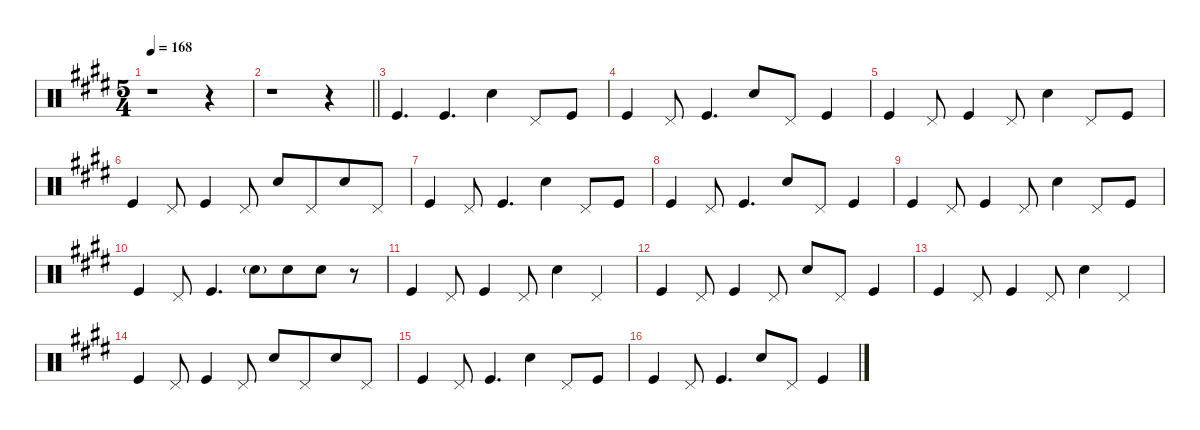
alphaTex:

\defaultSystemsLayout 4
\hideDynamics
\bracketExtendMode nobrackets
\singleTrackTrackNamePolicy hidden
\multiTrackTrackNamePolicy hidden
\firstSystemTrackNameMode fullname
\firstSystemTrackNameOrientation horizontal
\otherSystemsTrackNameOrientation horizontal
\track ("Percussion" "drm.") {instrument percussion}
\staff {score}
\articulation defaults
\ts (5 4)
\beaming (8 6 4)
\tempo 168
\clef neutral
\ks c#minor
r.1{dy f beam Down} r.4{beam Down} |
\barLineRight lightlight
r.1{beam Down} r.4{beam Down} |
"Kick (hit)"{acc forcenatural}.4{d beam Up} "Kick (hit)"{acc forcenatural}.4{d beam Up} "Snare (hit) 2"{acc forcenatural}.4{beam Down} "Pedal Hi-Hat (hit)"{acc forcenatural}.8{beam Up} "Kick (hit)"{acc forcenatural}.8{beam Up} |
"Kick (hit)"{acc forcenatural}.4{beam Up} "Pedal Hi-Hat (hit)"{acc forcenatural}.8{beam Up} "Kick (hit)"{acc forcenatural}.4{d beam Up} "Snare (hit) 2"{acc forcenatural}.8{beam Up} "Pedal Hi-Hat (hit)"{acc forcenatural}.8{beam Up} "Kick (hit)"{acc forcenatural}.4{beam Up} |
"Kick (hit)"{acc forcenatural}.4{beam Up} "Pedal Hi-Hat (hit)"{acc forcenatural}.8{beam Up} "Kick (hit)"{acc forcenatural}.4{beam Up} "Pedal Hi-Hat (hit)"{acc forcenatural}.8{beam Up} "Snare (hit) 2"{acc forcenatural}.4{beam Down} "Pedal Hi-Hat (hit)"{acc forcenatural}.8{beam Up} "Kick (hit)"{acc forcenatural}.8{beam Up} |
"Kick (hit)"{acc forcenatural}.4{beam Up} "Pedal Hi-Hat (hit)"{acc forcenatural}.8{beam Up} "Kick (hit)"{acc forcenatural}.4{beam Up} "Pedal Hi-Hat (hit)"{acc forcenatural}.8{beam Up} "Snare (hit) 2"{acc forcenatural}.8{beam Up} "Pedal Hi-Hat (hit)"{acc forcenatural}.8{beam Up} "Snare (hit) 2"{acc forcenatural}.8{beam Up} "Pedal Hi-Hat (hit)"{acc forcenatural}.8{beam Up} |
"Kick (hit)"{acc forcenatural}.4{beam Up} "Pedal Hi-Hat (hit)"{acc forcenatural}.8{beam Up} "Kick (hit)"{acc forcenatural}.4{d beam Up} "Snare (hit) 2"{acc forcenatural}.4{beam Down} "Pedal Hi-Hat (hit)"{acc forcenatural}.8{beam Up} "Kick (hit)"{acc forcenatural}.8{beam Up} |
"Kick (hit)"{acc forcenatural}.4{beam Up} "Pedal Hi-Hat (hit)"{acc forcenatural}.8{beam Up} "Kick (hit)"{acc forcenatural}.4{d beam Up} "Snare (hit) 2"{acc forcenatural}.8{beam Up} "Pedal Hi-Hat (hit)"{acc forcenatural}.8{beam Up} "Kick (hit)"{acc forcenatural}.4{beam Up} |
"Kick (hit)"{acc forcenatural}.4{beam Up} "Pedal Hi-Hat (hit)"{acc forcenatural}.8{beam Up} "Kick (hit)"{acc forcenatural}.4{beam Up} "Pedal Hi-Hat (hit)"{acc forcenatural}.8{beam Up} "Snare (hit) 2"{acc forcenatural}.4{beam Down} "Pedal Hi-Hat (hit)"{acc forcenatural}.8{beam Up} "Kick (hit)"{acc forcenatural}.8{beam Up} |
"Kick (hit)"{acc forcenatural}.4{beam Up} "Pedal Hi-Hat (hit)"{acc forcenatural}.8{beam Up} "Kick (hit)"{acc forcenatural}.4{d beam Up} "Snare (hit) 2"{g acc forcenatural}.8{dy mf beam Down} "Snare (hit) 2"{acc forcenatural}.8{dy f beam Down} "Snare (hit) 2"{acc forcenatural}.8{beam Down} r.8{beam Down} |
"Kick (hit)"{acc forcenatural}.4{beam Up} "Pedal Hi-Hat (hit)"{acc forcenatural}.8{beam Up} "Kick (hit)"{acc forcenatural}.4{beam Up} "Pedal Hi-Hat (hit)"{acc forcenatural}.8{beam Up} "Snare (hit) 2"{acc forcenatural}.4{beam Down} "Pedal Hi-Hat (hit)"{acc forcenatural}.4{beam Up} |
"Kick (hit)"{acc forcenatural}.4{beam Up} "Pedal Hi-Hat (hit)"{acc forcenatural}.8{beam Up} "Kick (hit)"{acc forcenatural}.4{beam Up} "Pedal Hi-Hat (hit)"{acc forcenatural}.8{beam Up} "Snare (hit) 2"{acc forcenatural}.8{beam Up} "Pedal Hi-Hat (hit)"{acc forcenatural}.8{beam Up} "Kick (hit)"{acc forcenatural}.4{beam Up} |
"Kick (hit)"{acc forcenatural}.4{beam Up} "Pedal Hi-Hat (hit)"{acc forcenatural}.8{beam Up} "Kick (hit)"{acc forcenatural}.4{beam Up} "Pedal Hi-Hat (hit)"{acc forcenatural}.8{beam Up} "Snare (hit) 2"{acc forcenatural}.4{beam Down} "Pedal Hi-Hat (hit)"{acc forcenatural}.4{beam Up} |
"Kick (hit)"{acc forcenatural}.4{beam Up} "Pedal Hi-Hat (hit)"{acc forcenatural}.8{beam Up} "Kick (hit)"{acc forcenatural}.4{beam Up} "Pedal Hi-Hat (hit)"{acc forcenatural}.8{beam Up} "Snare (hit) 2"{acc forcenatural}.8{beam Up} "Pedal Hi-Hat (hit)"{acc forcenatural}.8{beam Up} "Snare (hit) 2"{acc forcenatural}.8{beam Up} "Pedal Hi-Hat (hit)"{acc forcenatural}.8{beam Up} |
"Kick (hit)"{acc forcenatural}.4{beam Up} "Pedal Hi-Hat (hit)"{acc forcenatural}.8{beam Up} "Kick (hit)"{acc forcenatural}.4{d beam Up} "Snare (hit) 2"{acc forcenatural}.4{beam Down} "Pedal Hi-Hat (hit)"{acc forcenatural}.8{beam Up} "Kick (hit)"{acc forcenatural}.8{beam Up} |
"Kick (hit)"{acc forcenatural}.4{beam Up} "Pedal Hi-Hat (hit)"{acc forcenatural}.8{beam Up} "Kick (hit)"{acc forcenatural}.4{d beam Up} "Snare (hit) 2"{acc forcenatural}.8{beam Up} "Pedal Hi-Hat (hit)"{acc forcenatural}.8{beam Up} "Kick (hit)"{acc forcenatural}.4{beam Up}
